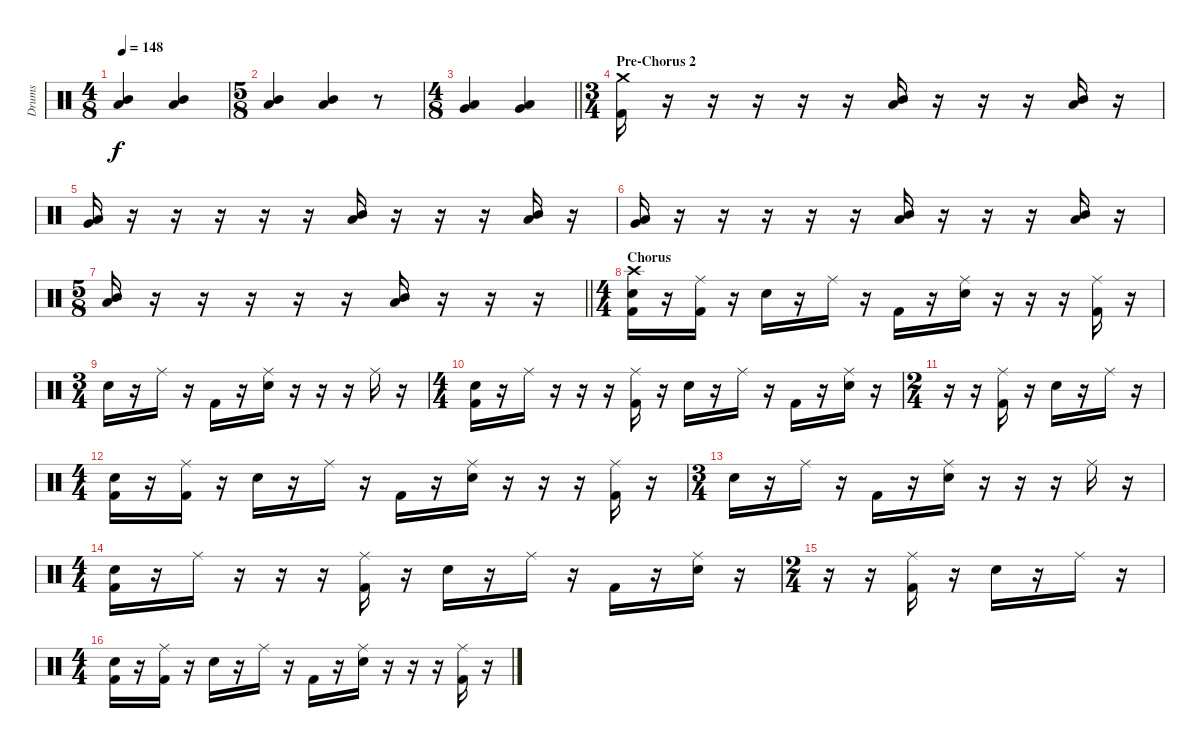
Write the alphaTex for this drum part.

\track ("Drums" "Drums") {instrument percussion}
\staff {score}
\articulation defaults
\ts (4 8)
\tempo 148
\clef neutral
\ks c
("Low Tom (hit)" "Mid Tom (hit)").4{dy f} ("Low Tom (hit)" "Mid Tom (hit)").4 |
\ts (5 8)
("Low Tom (hit)" "Mid Tom (hit)").4 ("Low Tom (hit)" "Mid Tom (hit)").4 r.8 |
\ts (4 8)
\barLineRight lightlight
("Low Tom (hit)" "Very Low Tom (hit)").4 ("Low Tom (hit)" "Very Low Tom (hit)").4 |
\ts (3 4)
\section ("" "Pre-Chorus 2")
("Crash medium (hit)" "Kick (hit) 2").16 r.16 r.16 r.16 r.16 r.16 ("Low Tom (hit)" "Mid Tom (hit)").16 r.16 r.16 r.16 ("Low Tom (hit)" "Mid Tom (hit)").16 r.16 |
("Low Tom (hit)" "Very Low Tom (hit)").16 r.16 r.16 r.16 r.16 r.16 ("Mid Tom (hit)" "Low Tom (hit)").16 r.16 r.16 r.16 ("Mid Tom (hit)" "Low Tom (hit)").16 r.16 |
("Low Tom (hit)" "Very Low Tom (hit)").16 r.16 r.16 r.16 r.16 r.16 ("Mid Tom (hit)" "Low Tom (hit)").16 r.16 r.16 r.16 ("Mid Tom (hit)" "Low Tom (hit)").16 r.16 |
\ts (5 8)
\barLineRight lightlight
("Mid Tom (hit)" "Low Tom (hit)").16 r.16 r.16 r.16 r.16 r.16 ("Mid Tom (hit)" "Low Tom (hit)").16 r.16 r.16 r.16 |
\ts (4 4)
\section ("" "Chorus")
("Crash high (hit)" "Electric Snare (hit)" "Kick (hit) 2").16 r.16 ("Ride (middle)" "Kick (hit) 2").16 r.16 "Electric Snare (hit)".16 r.16 "Ride (middle)".16 r.16 "Kick (hit) 2".16 r.16 ("Ride (middle)" "Electric Snare (hit)").16 r.16 r.16 r.16 ("Ride (middle)" "Kick (hit) 2").16 r.16 |
\ts (3 4)
"Electric Snare (hit)".16 r.16 "Ride (middle)".16 r.16 "Kick (hit) 2".16 r.16 ("Ride (middle)" "Electric Snare (hit)").16 r.16 r.16 r.16 "Ride (middle)".16 r.16 |
\ts (4 4)
("Electric Snare (hit)" "Kick (hit) 2").16 r.16 "Ride (middle)".16 r.16 r.16 r.16 ("Ride (middle)" "Kick (hit) 2").16 r.16 "Electric Snare (hit)".16 r.16 "Ride (middle)".16 r.16 "Kick (hit) 2".16 r.16 ("Ride (middle)" "Electric Snare (hit)").16 r.16 |
\ts (2 4)
r.16 r.16 ("Ride (middle)" "Kick (hit) 2").16 r.16 "Electric Snare (hit)".16 r.16 "Ride (middle)".16 r.16 |
\ts (4 4)
("Electric Snare (hit)" "Kick (hit) 2").16 r.16 ("Ride (middle)" "Kick (hit) 2").16 r.16 "Electric Snare (hit)".16 r.16 "Ride (middle)".16 r.16 "Kick (hit) 2".16 r.16 ("Ride (middle)" "Electric Snare (hit)").16 r.16 r.16 r.16 ("Ride (middle)" "Kick (hit) 2").16 r.16 |
\ts (3 4)
"Electric Snare (hit)".16 r.16 "Ride (middle)".16 r.16 "Kick (hit) 2".16 r.16 ("Ride (middle)" "Electric Snare (hit)").16 r.16 r.16 r.16 "Ride (middle)".16 r.16 |
\ts (4 4)
("Electric Snare (hit)" "Kick (hit) 2").16 r.16 "Ride (middle)".16 r.16 r.16 r.16 ("Ride (middle)" "Kick (hit) 2").16 r.16 "Electric Snare (hit)".16 r.16 "Ride (middle)".16 r.16 "Kick (hit) 2".16 r.16 ("Ride (middle)" "Electric Snare (hit)").16 r.16 |
\ts (2 4)
r.16 r.16 ("Ride (middle)" "Kick (hit) 2").16 r.16 "Electric Snare (hit)".16 r.16 "Ride (middle)".16 r.16 |
\ts (4 4)
("Electric Snare (hit)" "Kick (hit) 2").16 r.16 ("Ride (middle)" "Kick (hit) 2").16 r.16 "Electric Snare (hit)".16 r.16 "Ride (middle)".16 r.16 "Kick (hit) 2".16 r.16 ("Ride (middle)" "Electric Snare (hit)").16 r.16 r.16 r.16 ("Ride (middle)" "Kick (hit) 2").16 r.16
